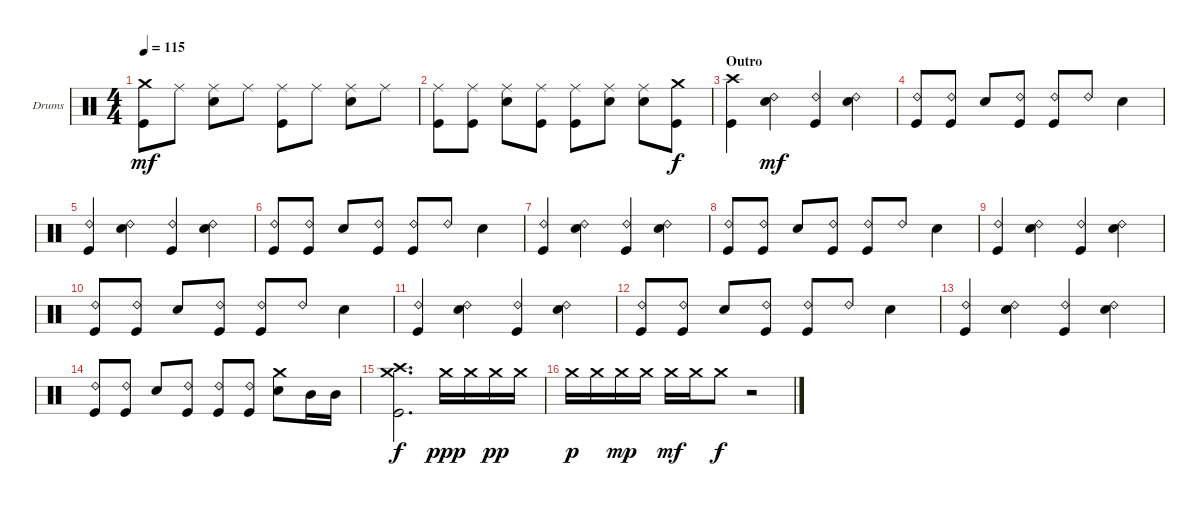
\defaultSystemsLayout 4
\bracketExtendMode groupsimilarinstruments
\firstSystemTrackNameOrientation horizontal
\otherSystemsTrackNameOrientation horizontal
\track ("Drumkit (Curt Cress)" "Drums") {instrument percussion}
\staff {score}
\articulation defaults
\ts (4 4)
\tempo 115
\clef neutral
\scale
1.02648
\ks c
("Kick (hit)" "Crash medium (hit)").8{dy mf} "Ride (middle)".8 ("Snare (hit) 2" "Ride (middle)").8 "Ride (middle)".8 ("Kick (hit)" "Ride (middle)").8 "Ride (middle)".8 ("Snare (hit) 2" "Ride (middle)").8 "Ride (middle)".8 |
\scale
0.973518 ("Kick (hit)" "Ride (middle)").8 ("Kick (hit)" "Ride (middle)").8 ("Snare (hit) 2" "Ride (middle)").8 ("Kick (hit)" "Ride (middle)").8 ("Kick (hit)" "Ride (middle)").8 ("Ride (middle)" "Snare (hit) 2").8 ("Snare (hit) 2" "Ride (middle)").8 ("Crash medium (hit)" "Kick (hit)").8{dy f} |
\section ("" "Outro")
\scale
1.02648 ("Kick (hit)" "Crash high (hit)").4 ("Snare (hit) 2" "Ride (bell) 2").4{dy mf} ("Kick (hit)" "Ride (bell) 2").4 ("Snare (hit) 2" "Ride (bell) 2").4 |
\scale
0.973518 ("Kick (hit)" "Ride (bell) 2").8 ("Kick (hit)" "Ride (bell) 2").8 "Snare (hit) 2".8 ("Kick (hit)" "Ride (bell) 2").8 ("Kick (hit)" "Ride (bell) 2").8 "Ride (bell) 2".8 "Snare (hit) 2".4 |
\scale
1.02648 ("Kick (hit)" "Ride (bell) 2").4 ("Snare (hit) 2" "Ride (bell) 2").4 ("Kick (hit)" "Ride (bell) 2").4 ("Snare (hit) 2" "Ride (bell) 2").4 |
\scale
0.973518 ("Kick (hit)" "Ride (bell) 2").8 ("Kick (hit)" "Ride (bell) 2").8 "Snare (hit) 2".8 ("Kick (hit)" "Ride (bell) 2").8 ("Kick (hit)" "Ride (bell) 2").8 "Ride (bell) 2".8 "Snare (hit) 2".4 |
\scale
1.02648 ("Kick (hit)" "Ride (bell) 2").4 ("Snare (hit) 2" "Ride (bell) 2").4 ("Kick (hit)" "Ride (bell) 2").4 ("Snare (hit) 2" "Ride (bell) 2").4 |
\scale
0.973518 ("Kick (hit)" "Ride (bell) 2").8 ("Kick (hit)" "Ride (bell) 2").8 "Snare (hit) 2".8 ("Kick (hit)" "Ride (bell) 2").8 ("Kick (hit)" "Ride (bell) 2").8 "Ride (bell) 2".8 "Snare (hit) 2".4 |
\scale
1.02648 ("Kick (hit)" "Ride (bell) 2").4 ("Snare (hit) 2" "Ride (bell) 2").4 ("Kick (hit)" "Ride (bell) 2").4 ("Snare (hit) 2" "Ride (bell) 2").4 |
\scale
0.973518 ("Kick (hit)" "Ride (bell) 2").8 ("Kick (hit)" "Ride (bell) 2").8 "Snare (hit) 2".8 ("Kick (hit)" "Ride (bell) 2").8 ("Kick (hit)" "Ride (bell) 2").8 "Ride (bell) 2".8 "Snare (hit) 2".4 |
\scale
1.02648 ("Kick (hit)" "Ride (bell) 2").4 ("Snare (hit) 2" "Ride (bell) 2").4 ("Kick (hit)" "Ride (bell) 2").4 ("Snare (hit) 2" "Ride (bell) 2").4 |
\scale
0.973518 ("Kick (hit)" "Ride (bell) 2").8 ("Kick (hit)" "Ride (bell) 2").8 "Snare (hit) 2".8 ("Kick (hit)" "Ride (bell) 2").8 ("Kick (hit)" "Ride (bell) 2").8 "Ride (bell) 2".8 "Snare (hit) 2".4 |
\scale
1.02648 ("Kick (hit)" "Ride (bell) 2").4 ("Snare (hit) 2" "Ride (bell) 2").4 ("Kick (hit)" "Ride (bell) 2").4 ("Snare (hit) 2" "Ride (bell) 2").4 |
\scale
0.973518 ("Kick (hit)" "Ride (bell) 2").8 ("Kick (hit)" "Ride (bell) 2").8 "Snare (hit) 2".8 ("Kick (hit)" "Ride (bell) 2").8 ("Kick (hit)" "Ride (bell) 2").8 ("Ride (bell) 2" "Kick (hit)").8 ("Snare (hit) 2" "Crash medium (hit)").8 "Mid Tom (hit)".16 "Mid Tom (hit)".16 |
\scale
1.02648 ("Kick (hit)" "Crash medium (hit)" "Crash high (hit)").2{d dy f} "Crash medium (hit)".16{dy ppp} "Crash medium (hit)".16 "Crash medium (hit)".16{dy pp} "Crash medium (hit)".16 |
\scale
0.973518 "Crash medium (hit)".16{dy p} "Crash medium (hit)".16 "Crash medium (hit)".16{dy mp} "Crash medium (hit)".16 "Crash medium (hit)".16{dy mf} "Crash medium (hit)".16 "Crash medium (hit)".8{dy f} r.2
